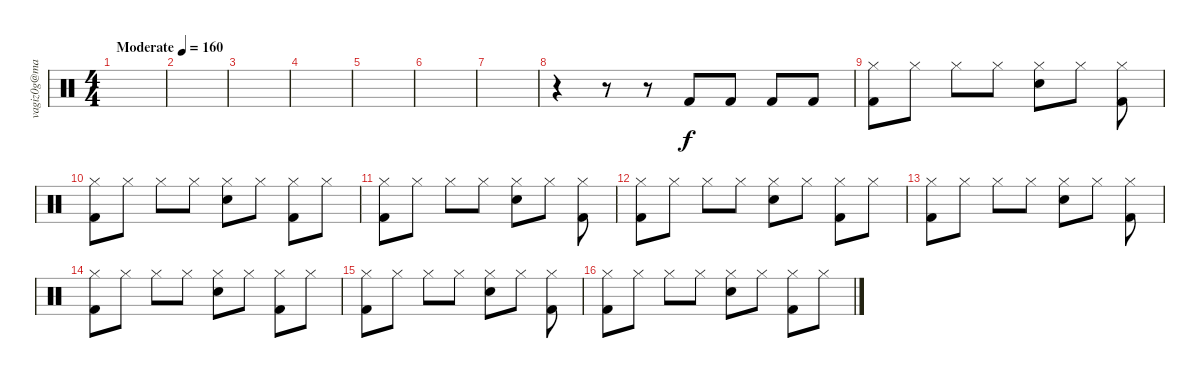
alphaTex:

\track ("vagiz0g@mail.ru" "vagiz0g@ma") {instrument percussion}
\staff {score}
\articulation defaults
\ts (4 4)
\tempo (160 "Moderate")
\clef neutral
\ks c
|
|
|
|
|
|
|
r.4 r.8 r.8 "Kick (hit) 2".8 "Kick (hit) 2".8 "Kick (hit) 2".8 "Kick (hit) 2".8 |
("Kick (hit) 2" "Hi-Hat (closed)").8 "Hi-Hat (closed)".8 "Hi-Hat (closed)".8 "Hi-Hat (closed)".8 ("Hand Clap (hit)" "Hi-Hat (closed)").8 "Hi-Hat (closed)".8 ("Kick (hit) 2" "Hi-Hat (closed)").8 |
("Kick (hit) 2" "Hi-Hat (closed)").8 "Hi-Hat (closed)".8 "Hi-Hat (closed)".8 "Hi-Hat (closed)".8 ("Hand Clap (hit)" "Hi-Hat (closed)").8 "Hi-Hat (closed)".8 ("Kick (hit) 2" "Hi-Hat (closed)").8 "Hi-Hat (closed)".8 |
("Kick (hit) 2" "Hi-Hat (closed)").8 "Hi-Hat (closed)".8 "Hi-Hat (closed)".8 "Hi-Hat (closed)".8 ("Hand Clap (hit)" "Hi-Hat (closed)").8 "Hi-Hat (closed)".8 ("Kick (hit) 2" "Hi-Hat (closed)").8 |
("Kick (hit) 2" "Hi-Hat (closed)").8 "Hi-Hat (closed)".8 "Hi-Hat (closed)".8 "Hi-Hat (closed)".8 ("Hand Clap (hit)" "Hi-Hat (closed)").8 "Hi-Hat (closed)".8 ("Kick (hit) 2" "Hi-Hat (closed)").8 "Hi-Hat (closed)".8 |
("Kick (hit) 2" "Hi-Hat (closed)").8 "Hi-Hat (closed)".8 "Hi-Hat (closed)".8 "Hi-Hat (closed)".8 ("Hand Clap (hit)" "Hi-Hat (closed)").8 "Hi-Hat (closed)".8 ("Kick (hit) 2" "Hi-Hat (closed)").8 |
("Kick (hit) 2" "Hi-Hat (closed)").8 "Hi-Hat (closed)".8 "Hi-Hat (closed)".8 "Hi-Hat (closed)".8 ("Hand Clap (hit)" "Hi-Hat (closed)").8 "Hi-Hat (closed)".8 ("Kick (hit) 2" "Hi-Hat (closed)").8 "Hi-Hat (closed)".8 |
("Kick (hit) 2" "Hi-Hat (closed)").8 "Hi-Hat (closed)".8 "Hi-Hat (closed)".8 "Hi-Hat (closed)".8 ("Hand Clap (hit)" "Hi-Hat (closed)").8 "Hi-Hat (closed)".8 ("Kick (hit) 2" "Hi-Hat (closed)").8 |
("Kick (hit) 2" "Hi-Hat (closed)").8 "Hi-Hat (closed)".8 "Hi-Hat (closed)".8 "Hi-Hat (closed)".8 ("Hand Clap (hit)" "Hi-Hat (closed)").8 "Hi-Hat (closed)".8 ("Kick (hit) 2" "Hi-Hat (closed)").8 "Hi-Hat (closed)".8
